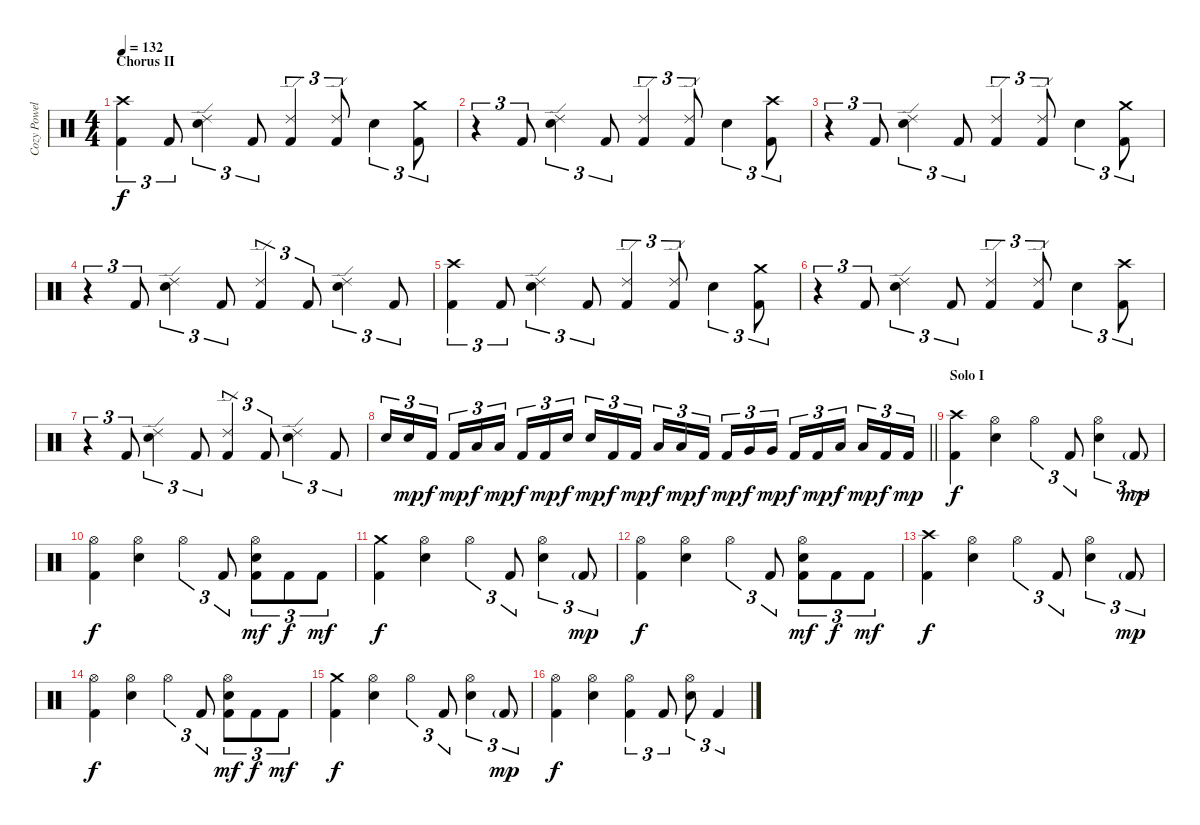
\track ("Cozy Powell" "Cozy Powel") {instrument percussion}
\staff {score}
\articulation defaults
\ts (4 4)
\section ("" "Chorus II")
\tempo 132
\clef neutral
\ks c
("Crash high (hit)" "Kick (hit) 2").4{tu (3 2) dy f} "Kick (hit) 2".8{tu (3 2)} ("Ride (edge) 2" "Snare (hit) 2").4{tu (3 2)} "Kick (hit) 2".8{tu (3 2)} ("Ride (edge) 2" "Kick (hit) 2").4{tu (3 2)} ("Ride (edge) 2" "Kick (hit) 2").8{tu (3 2)} "Snare (hit) 2".4{tu (3 2)} ("Crash medium (hit)" "Kick (hit) 2").8{tu (3 2)} |
r.4{tu (3 2)} "Kick (hit) 2".8{tu (3 2)} ("Ride (edge) 2" "Snare (hit) 2").4{tu (3 2)} "Kick (hit) 2".8{tu (3 2)} ("Ride (edge) 2" "Kick (hit) 2").4{tu (3 2)} ("Ride (edge) 2" "Kick (hit) 2").8{tu (3 2)} "Snare (hit) 2".4{tu (3 2)} ("Crash high (hit)" "Kick (hit) 2").8{tu (3 2)} |
r.4{tu (3 2)} "Kick (hit) 2".8{tu (3 2)} ("Ride (edge) 2" "Snare (hit) 2").4{tu (3 2)} "Kick (hit) 2".8{tu (3 2)} ("Ride (edge) 2" "Kick (hit) 2").4{tu (3 2)} ("Ride (edge) 2" "Kick (hit) 2").8{tu (3 2)} "Snare (hit) 2".4{tu (3 2)} ("Crash medium (hit)" "Kick (hit) 2").8{tu (3 2)} |
r.4{tu (3 2)} "Kick (hit) 2".8{tu (3 2)} ("Ride (edge) 2" "Snare (hit) 2").4{tu (3 2)} "Kick (hit) 2".8{tu (3 2)} ("Ride (edge) 2" "Kick (hit) 2").4{tu (3 2)} "Kick (hit) 2".8{tu (3 2)} ("Ride (edge) 2" "Snare (hit) 2").4{tu (3 2)} "Kick (hit) 2".8{tu (3 2)} |
("Crash high (hit)" "Kick (hit) 2").4{tu (3 2)} "Kick (hit) 2".8{tu (3 2)} ("Ride (edge) 2" "Snare (hit) 2").4{tu (3 2)} "Kick (hit) 2".8{tu (3 2)} ("Ride (edge) 2" "Kick (hit) 2").4{tu (3 2)} ("Ride (edge) 2" "Kick (hit) 2").8{tu (3 2)} "Snare (hit) 2".4{tu (3 2)} ("Crash medium (hit)" "Kick (hit) 2").8{tu (3 2)} |
r.4{tu (3 2)} "Kick (hit) 2".8{tu (3 2)} ("Ride (edge) 2" "Snare (hit) 2").4{tu (3 2)} "Kick (hit) 2".8{tu (3 2)} ("Ride (edge) 2" "Kick (hit) 2").4{tu (3 2)} ("Ride (edge) 2" "Kick (hit) 2").8{tu (3 2)} "Snare (hit) 2".4{tu (3 2)} ("Crash high (hit)" "Kick (hit) 2").8{tu (3 2)} |
r.4{tu (3 2)} "Kick (hit) 2".8{tu (3 2)} ("Ride (edge) 2" "Snare (hit) 2").4{tu (3 2)} "Kick (hit) 2".8{tu (3 2)} ("Ride (edge) 2" "Kick (hit) 2").4{tu (3 2)} "Kick (hit) 2".8{tu (3 2)} ("Ride (edge) 2" "Snare (hit) 2").4{tu (3 2)} "Kick (hit) 2".8{tu (3 2)} |
\barLineRight lightlight "Snare (hit) 2".16{tu (3 2)} "Snare (hit) 2".16{tu (3 2) dy mp} "Kick (hit) 2".16{tu (3 2) dy f beam splitsecondary} "Kick (hit) 2".16{tu (3 2) dy mp} "Low Tom (hit)".16{tu (3 2) dy f} "Low Tom (hit)".16{tu (3 2) dy mp} "Kick (hit) 2".16{tu (3 2) dy f} "Kick (hit) 2".16{tu (3 2) dy mp} "Snare (hit) 2".16{tu (3 2) dy f beam splitsecondary} "Snare (hit) 2".16{tu (3 2) dy mp} "Kick (hit) 2".16{tu (3 2) dy f} "Kick (hit) 2".16{tu (3 2) dy mp} "Low Tom (hit)".16{tu (3 2) dy f} "Low Tom (hit)".16{tu (3 2) dy mp} "Kick (hit) 2".16{tu (3 2) dy f beam splitsecondary} "Kick (hit) 2".16{tu (3 2) dy mp} "Very Low Tom (hit)".16{tu (3 2) dy f} "Very Low Tom (hit)".16{tu (3 2) dy mp} "Kick (hit) 2".16{tu (3 2) dy f} "Kick (hit) 2".16{tu (3 2) dy mp} "Low Floor Tom (hit)".16{tu (3 2) dy f beam splitsecondary} "Low Floor Tom (hit)".16{tu (3 2) dy mp} "Kick (hit) 2".16{tu (3 2) dy f} "Kick (hit) 2".16{tu (3 2) dy mp}
|
\section ("" "Solo I")
("Crash high (hit)" "Kick (hit) 2").4{dy f} ("Hi-Hat (open)" "Snare (hit) 2").4 "Hi-Hat (open)".4{tu (3 2)} "Kick (hit) 2".8{tu (3 2)} ("Hi-Hat (open)" "Snare (hit) 2").4{tu (3 2)} "Kick (hit) 2"{g}.8{tu (3 2) dy mp} |
("Hi-Hat (open)" "Kick (hit) 2").4{dy f} ("Hi-Hat (open)" "Snare (hit) 2").4 "Hi-Hat (open)".4{tu (3 2)} "Kick (hit) 2".8{tu (3 2)} ("Hi-Hat (open)" "Snare (hit) 2" "Kick (hit) 2").8{tu (3 2) dy mf} "Kick (hit) 2".8{tu (3 2) dy f} "Kick (hit) 2".8{tu (3 2) dy mf} |
("Crash medium (hit)" "Kick (hit) 2").4{dy f} ("Hi-Hat (open)" "Snare (hit) 2").4 "Hi-Hat (open)".4{tu (3 2)} "Kick (hit) 2".8{tu (3 2)} ("Hi-Hat (open)" "Snare (hit) 2").4{tu (3 2)} "Kick (hit) 2"{g}.8{tu (3 2) dy mp} |
("Hi-Hat (open)" "Kick (hit) 2").4{dy f} ("Hi-Hat (open)" "Snare (hit) 2").4 "Hi-Hat (open)".4{tu (3 2)} "Kick (hit) 2".8{tu (3 2)} ("Hi-Hat (open)" "Snare (hit) 2" "Kick (hit) 2").8{tu (3 2) dy mf} "Kick (hit) 2".8{tu (3 2) dy f} "Kick (hit) 2".8{tu (3 2) dy mf} |
("Crash high (hit)" "Kick (hit) 2").4{dy f} ("Hi-Hat (open)" "Snare (hit) 2").4 "Hi-Hat (open)".4{tu (3 2)} "Kick (hit) 2".8{tu (3 2)} ("Hi-Hat (open)" "Snare (hit) 2").4{tu (3 2)} "Kick (hit) 2"{g}.8{tu (3 2) dy mp} |
("Hi-Hat (open)" "Kick (hit) 2").4{dy f} ("Hi-Hat (open)" "Snare (hit) 2").4 "Hi-Hat (open)".4{tu (3 2)} "Kick (hit) 2".8{tu (3 2)} ("Hi-Hat (open)" "Snare (hit) 2" "Kick (hit) 2").8{tu (3 2) dy mf} "Kick (hit) 2".8{tu (3 2) dy f} "Kick (hit) 2".8{tu (3 2) dy mf} |
("Crash medium (hit)" "Kick (hit) 2").4{dy f} ("Hi-Hat (open)" "Snare (hit) 2").4 "Hi-Hat (open)".4{tu (3 2)} "Kick (hit) 2".8{tu (3 2)} ("Hi-Hat (open)" "Snare (hit) 2").4{tu (3 2)} "Kick (hit) 2"{g}.8{tu (3 2) dy mp} |
("Hi-Hat (open)" "Kick (hit) 2").4{dy f} ("Hi-Hat (open)" "Snare (hit) 2").4 ("Hi-Hat (open)" "Kick (hit) 2").4{tu (3 2)} "Kick (hit) 2".8{tu (3 2)} ("Hi-Hat (open)" "Snare (hit) 2").8{tu (3 2)} "Kick (hit) 2".4{tu (3 2)}
